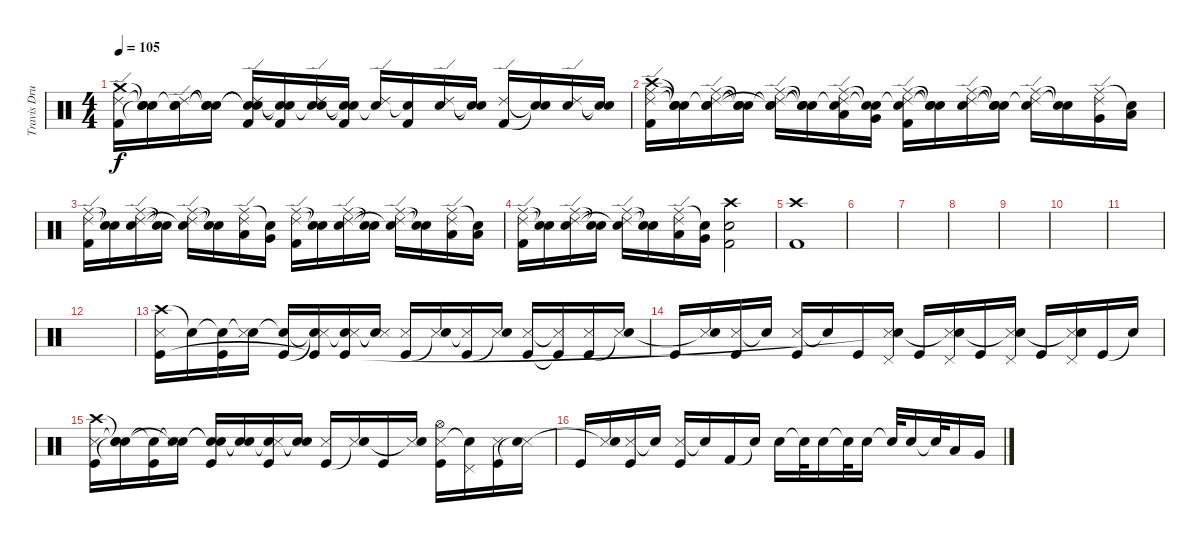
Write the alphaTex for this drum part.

\track ("Travis Drums" "Travis Dru") {instrument percussion}
\staff {score}
\articulation defaults
\ts (4 4)
\tempo 105
\clef neutral
\ks c
("Crash medium (hit)" "Ride (edge) 2" "Kick (hit) 2").16{dy f} ("Snare (hit)"{t} "Snare (hit)"{t} "Snare (hit)"{t}).16 ("Snare (hit)"{t} "Ride (edge) 2" "Electric Snare (hit)").16 ("Snare (hit)"{t} "Snare (hit)"{t} "Snare (hit)"{t}).16 ("Snare (hit)"{t} "Ride (edge) 2" "Snare (hit)"{t} "Kick (hit) 2").16 ("Snare (hit)"{t} "Snare (hit)"{t} "Kick (hit) 2").16 ("Snare (hit)"{t} "Ride (edge) 2" "Electric Snare (hit)").16 ("Snare (hit)"{t} "Snare (hit)"{t} "Kick (hit) 2").16 ("Ride (edge) 2" "Snare (hit)"{t}).16 ("Snare (hit)"{t} "Kick (hit) 2").16 ("Ride (edge) 2" "Electric Snare (hit)").16 ("Snare (hit)"{t} "Snare (hit)"{t}).16 ("Ride (edge) 2" "Kick (hit) 2").16 ("Snare (hit)"{t} "Snare (hit)"{t}).16 ("Ride (edge) 2" "Electric Snare (hit)").16 ("Snare (hit)"{t} "Snare (hit)"{t}).16 |
("Crash high (hit)" "Ride (middle)" "Ride (edge) 2" "Kick (hit) 2").16 ("Snare (hit)"{t} "Snare (hit)"{t} "Snare (hit)"{t}).16 ("Snare (hit)"{t} "Ride (middle)" "Ride (edge) 2" "Electric Snare (hit)").16 ("Snare (hit)"{t} "Snare (hit)"{t} "Snare (hit)"{t}).16 ("Snare (hit)"{t} "Ride (middle)" "Ride (edge) 2" "Snare (hit)"{t}).16 ("Snare (hit)"{t} "Snare (hit)"{t} "Snare (hit)"{t}).16 ("Snare (hit)"{t} "Ride (middle)" "Ride (edge) 2" "Low Tom (hit)").16 ("Snare (hit)"{t} "Snare (hit)"{t} "Very Low Tom (hit)").16 ("Snare (hit)"{t} "Ride (middle)" "Ride (edge) 2" "Kick (hit) 2").16 ("Snare (hit)"{t} "Snare (hit)"{t} "Snare (hit)"{t}).16 ("Ride (middle)" "Ride (edge) 2" "Electric Snare (hit)").16 ("Snare (hit)"{t} "Snare (hit)"{t} "Snare (hit)"{t}).16 ("Ride (middle)" "Ride (edge) 2" "Snare (hit)"{t}).16 ("Snare (hit)"{t} "Snare (hit)"{t}).16 ("Ride (middle)" "Ride (edge) 2" "Very Low Tom (hit)").16 ("Snare (hit)"{t} "Low Floor Tom (hit)").16 |
("Ride (middle)" "Ride (edge) 2" "Kick (hit) 2").16 ("Snare (hit)"{t} "Snare (hit)"{t}).16 ("Ride (middle)" "Ride (edge) 2" "Electric Snare (hit)").16 ("Snare (hit)"{t} "Snare (hit)"{t}).16 ("Ride (middle)" "Ride (edge) 2" "Snare (hit)"{t}).16 ("Snare (hit)"{t} "Snare (hit)"{t}).16 ("Ride (middle)" "Ride (edge) 2" "Low Tom (hit)").16 ("Snare (hit)"{t} "Very Low Tom (hit)").16 ("Ride (middle)" "Ride (edge) 2" "Kick (hit) 2").16 ("Snare (hit)"{t} "Snare (hit)"{t}).16 ("Ride (middle)" "Ride (edge) 2" "Electric Snare (hit)").16 ("Snare (hit)"{t} "Snare (hit)"{t}).16 ("Ride (middle)" "Ride (edge) 2" "Snare (hit)"{t}).16 ("Snare (hit)"{t} "Snare (hit)"{t}).16 ("Ride (middle)" "Ride (edge) 2" "Low Tom (hit)").16 ("Snare (hit)"{t} "Low Floor Tom (hit)").16 |
("Ride (middle)" "Ride (edge) 2" "Kick (hit) 2").16 ("Snare (hit)"{t} "Snare (hit)"{t}).16 ("Ride (middle)" "Ride (edge) 2" "Electric Snare (hit)").16 ("Snare (hit)"{t} "Snare (hit)"{t}).16 ("Ride (middle)" "Ride (edge) 2" "Snare (hit)"{t}).16 ("Snare (hit)"{t} "Snare (hit)"{t}).16 ("Ride (middle)" "Ride (edge) 2" "Low Tom (hit)").16 ("Snare (hit)"{t} "Very Low Tom (hit)").16 ("Crash high (hit)" "Electric Snare (hit)" "Kick (hit) 2").2 |
("Crash high (hit)" "Kick (hit) 2").1 |
|
|
|
|
|
|
|
("Crash high (hit)" "Snare (side stick) 3" "Kick (hit)").16 "Snare (hit)"{t}.16 ("Snare (hit)"{t} "Kick (hit)").16 ("Snare (hit)"{t} "Snare (side stick) 3").16 ("Snare (hit)"{t} "Kick (hit)").16 ("Snare (hit)"{t} "Snare (side stick) 3"{t} "Kick (hit)"{t}).16 ("Snare (hit)"{t} "Snare (side stick) 3" "Kick (hit)").16 ("Snare (hit)"{t} "Snare (side stick) 3"{t}).16 ("Snare (side stick) 3" "Kick (hit)").16 ("Snare (side stick) 3" "Snare (hit)"{t}).16 ("Snare (side stick) 3"{t} "Kick (hit)").16 ("Snare (side stick) 3" "Snare (hit)"{t}).16 ("Snare (side stick) 3" "Kick (hit)").16 ("Snare (side stick) 3"{t} "Kick (hit)"{t}).16 ("Snare (side stick) 3" "Kick (hit)").16 ("Snare (side stick) 3" "Snare (hit)"{t}).16 |
"Kick (hit)".16 ("Snare (side stick) 3" "Snare (hit)"{t}).16 ("Snare (side stick) 3" "Kick (hit)").16 "Snare (hit)"{t}.16 ("Snare (side stick) 3" "Kick (hit)").16 "Snare (hit)"{t}.16 "Kick (hit)".16 ("Snare (side stick) 3" "Pedal Hi-Hat (hit)" "Snare (hit)"{t}).16 "Kick (hit)".16 ("Snare (side stick) 3" "Pedal Hi-Hat (hit)" "Snare (hit)"{t}).16 "Kick (hit)".16 ("Snare (side stick) 3" "Pedal Hi-Hat (hit)" "Snare (hit)"{t}).16 "Kick (hit)".16 ("Snare (side stick) 3" "Pedal Hi-Hat (hit)" "Snare (hit)"{t}).16 "Kick (hit)".16 "Snare (hit)"{t}.16 |
("Crash high (hit)" "Snare (side stick) 3" "Kick (hit)").16 ("Snare (hit)"{t} "Snare (hit)"{t} "Snare (hit)"{t}).16 ("Snare (hit)"{t} "Kick (hit)").16 ("Snare (hit)"{t} "Snare (side stick) 3" "Snare (hit)"{t}).16 ("Snare (hit)"{t} "Snare (hit)"{t} "Kick (hit)").16 ("Snare (hit)"{t} "Snare (hit)"{t}).16 ("Snare (hit)"{t} "Snare (side stick) 3" "Kick (hit)").16 ("Snare (hit)"{t} "Snare (hit)"{t}).16 ("Snare (side stick) 3" "Kick (hit)").16 ("Snare (side stick) 3" "Snare (hit)"{t}).16 "Kick (hit)".16 ("Snare (side stick) 3" "Snare (hit)"{t}).16 ("Hi-Hat (open)" "Snare (side stick) 3" "Kick (hit)").16 ("Pedal Hi-Hat (hit)" "Snare (hit)"{t}).16 ("Snare (side stick) 3" "Kick (hit)").16 ("Snare (side stick) 3" "Snare (hit)"{t}).16 |
"Kick (hit)".16 ("Snare (side stick) 3" "Snare (hit)"{t}).16 ("Snare (side stick) 3" "Kick (hit)").16 "Snare (hit)"{t}.16 ("Snare (side stick) 3" "Kick (hit)").16 "Snare (hit)"{t}.16 "Kick (hit) 2".16 "Snare (hit)"{t}.16 "Electric Snare (hit)".16 "Snare (hit)"{t}.32 "Electric Snare (hit)".16 "Snare (hit)"{t}.32 "Electric Snare (hit)".16 "Electric Snare (hit)"{t}.32 "Electric Snare (hit)".16 "Snare (hit)"{t}.32 "Low Tom (hit)".16 "Very Low Tom (hit)".16
